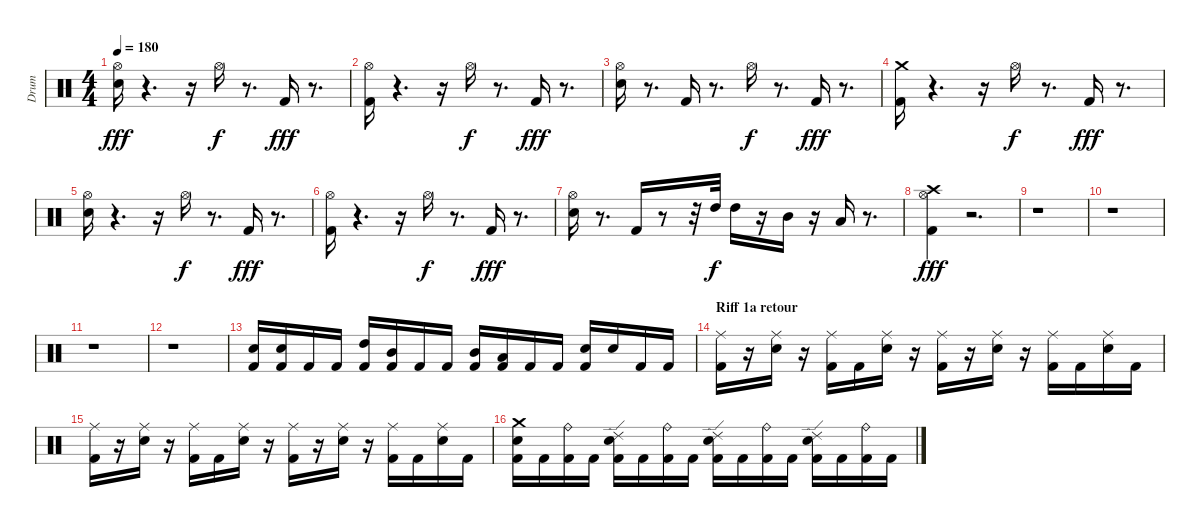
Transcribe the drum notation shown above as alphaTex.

\track ("Drum" "Drum") {instrument percussion}
\staff {score}
\articulation defaults
\ts (4 4)
\tempo 180
\clef neutral
\ks c
("Electric Snare (hit)" "Hi-Hat (open)").16{dy fff} r.4{d} r.16 "Hi-Hat (open)".16{dy f} r.8{d} "Kick (hit) 2".16{dy fff} r.8{d} |
("Kick (hit) 2" "Hi-Hat (open)").16 r.4{d} r.16 "Hi-Hat (open)".16{dy f} r.8{d} "Kick (hit) 2".16{dy fff} r.8{d} |
("Electric Snare (hit)" "Hi-Hat (open)").16 r.8{d} "Kick (hit) 2".16 r.8{d} "Hi-Hat (open)".16{dy f} r.8{d} "Kick (hit) 2".16{dy fff} r.8{d} |
("Kick (hit) 2" "Crash medium (hit)").16 r.4{d} r.16 "Hi-Hat (open)".16{dy f} r.8{d} "Kick (hit) 2".16{dy fff} r.8{d} |
("Electric Snare (hit)" "Hi-Hat (open)").16 r.4{d} r.16 "Hi-Hat (open)".16{dy f} r.8{d} "Kick (hit) 2".16{dy fff} r.8{d} |
("Kick (hit) 2" "Hi-Hat (open)").16 r.4{d} r.16 "Hi-Hat (open)".16{dy f} r.8{d} "Kick (hit) 2".16{dy fff} r.8{d} |
("Electric Snare (hit)" "Hi-Hat (open)").16 r.8{d} "Kick (hit) 2".16 r.8 r.32 "High Tom (hit)".32{dy f} "High Tom (hit)".16 r.16 "Mid Tom (hit)".16 r.16 "Low Tom (hit)".16 r.8{d} |
("Kick (hit) 2" "Crash high (hit)" "Hi-Hat (open)").4{dy fff} r.2{d} |
r.1 |
r.1 |
r.1 |
r.1 |
("Kick (hit) 2" "Electric Snare (hit)").16 ("Kick (hit) 2" "Electric Snare (hit)").16 "Kick (hit) 2".16 "Kick (hit) 2".16 ("Kick (hit) 2" "High Tom (hit)").16 ("Kick (hit) 2" "Mid Tom (hit)").16 "Kick (hit) 2".16 "Kick (hit) 2".16 ("Kick (hit) 2" "Mid Tom (hit)").16 ("Kick (hit) 2" "Low Tom (hit)").16 "Kick (hit) 2".16 "Kick (hit) 2".16 ("Electric Snare (hit)" "Kick (hit) 2").16 "Electric Snare (hit)".16 "Kick (hit) 2".16 "Kick (hit) 2".16 |
\section ("" "Riff 1a retour")
("Kick (hit) 2" "Ride (middle)").16 r.16 ("Electric Snare (hit)" "Ride (middle)").16 r.16 ("Kick (hit) 2" "Ride (middle)").16 "Kick (hit) 2".16 ("Electric Snare (hit)" "Ride (middle)").16 r.16 ("Kick (hit) 2" "Ride (middle)").16 r.16 ("Electric Snare (hit)" "Ride (middle)").16 r.16 ("Kick (hit) 2" "Ride (middle)").16 "Kick (hit) 2".16 ("Electric Snare (hit)" "Ride (middle)").16 "Kick (hit) 2".16 |
("Kick (hit) 2" "Ride (middle)").16 r.16 ("Electric Snare (hit)" "Ride (middle)").16 r.16 ("Kick (hit) 2" "Ride (middle)").16 "Kick (hit) 2".16 ("Electric Snare (hit)" "Ride (middle)").16 r.16 ("Kick (hit) 2" "Ride (middle)").16 r.16 ("Electric Snare (hit)" "Ride (middle)").16 r.16 ("Kick (hit) 2" "Ride (middle)").16 "Kick (hit) 2".16 ("Electric Snare (hit)" "Ride (middle)").16 "Kick (hit) 2".16 |
("Kick (hit) 2" "Electric Snare (hit)" "Crash medium (hit)").16 "Kick (hit) 2".16 ("Kick (hit) 2" "Ride (bell)").16 "Kick (hit) 2".16 ("Electric Snare (hit)" "Kick (hit) 2" "Ride (edge) 2").16 "Kick (hit) 2".16 ("Kick (hit) 2" "Ride (bell)").16 "Kick (hit) 2".16 ("Electric Snare (hit)" "Kick (hit) 2" "Ride (edge) 2").16 "Kick (hit) 2".16 ("Kick (hit) 2" "Ride (bell)").16 "Kick (hit) 2".16 ("Electric Snare (hit)" "Kick (hit) 2" "Ride (edge) 2").16 "Kick (hit) 2".16 ("Kick (hit) 2" "Ride (bell)").16 "Kick (hit) 2".16
